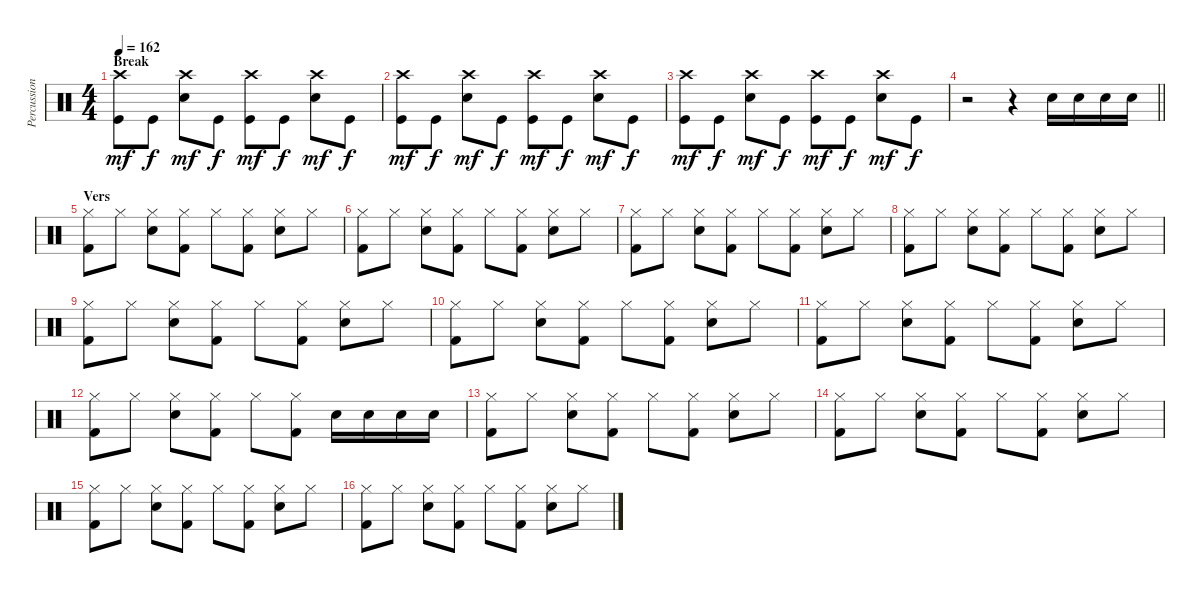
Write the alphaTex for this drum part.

\track ("Percussions" "Percussion") {instrument percussion}
\staff {score}
\articulation defaults
\ts (4 4)
\section ("" "Break")
\tempo 162
\clef neutral
\ks c
("Crash high (hit)" "Kick (hit)").8{dy mf} "Kick (hit)".8{dy f} ("Crash high (hit)" "Electric Snare (hit)").8{dy mf} "Kick (hit)".8{dy f} ("Crash high (hit)" "Kick (hit)").8{dy mf} "Kick (hit)".8{dy f} ("Crash high (hit)" "Electric Snare (hit)").8{dy mf} "Kick (hit)".8{dy f} |
("Crash high (hit)" "Kick (hit)").8{dy mf} "Kick (hit)".8{dy f} ("Crash high (hit)" "Electric Snare (hit)").8{dy mf} "Kick (hit)".8{dy f} ("Crash high (hit)" "Kick (hit)").8{dy mf} "Kick (hit)".8{dy f} ("Crash high (hit)" "Electric Snare (hit)").8{dy mf} "Kick (hit)".8{dy f} |
("Crash high (hit)" "Kick (hit)").8{dy mf} "Kick (hit)".8{dy f} ("Crash high (hit)" "Electric Snare (hit)").8{dy mf} "Kick (hit)".8{dy f} ("Crash high (hit)" "Kick (hit)").8{dy mf} "Kick (hit)".8{dy f} ("Crash high (hit)" "Electric Snare (hit)").8{dy mf} "Kick (hit)".8{dy f} |
\barLineRight lightlight
r.2 r.4 "Snare (hit) 2".16 "Snare (hit) 2".16 "Snare (hit) 2".16 "Snare (hit) 2".16 |
\section ("" "Vers")
("Hi-Hat (closed)" "Kick (hit) 2").8 "Hi-Hat (closed)".8 ("Snare (hit) 2" "Hi-Hat (closed)").8 ("Hi-Hat (closed)" "Kick (hit) 2").8 "Hi-Hat (closed)".8 ("Hi-Hat (closed)" "Kick (hit) 2").8 ("Snare (hit) 2" "Hi-Hat (closed)").8 "Hi-Hat (closed)".8 |
("Hi-Hat (closed)" "Kick (hit) 2").8 "Hi-Hat (closed)".8 ("Snare (hit) 2" "Hi-Hat (closed)").8 ("Hi-Hat (closed)" "Kick (hit) 2").8 "Hi-Hat (closed)".8 ("Hi-Hat (closed)" "Kick (hit) 2").8 ("Snare (hit) 2" "Hi-Hat (closed)").8 "Hi-Hat (closed)".8 |
("Hi-Hat (closed)" "Kick (hit) 2").8 "Hi-Hat (closed)".8 ("Snare (hit) 2" "Hi-Hat (closed)").8 ("Hi-Hat (closed)" "Kick (hit) 2").8 "Hi-Hat (closed)".8 ("Hi-Hat (closed)" "Kick (hit) 2").8 ("Snare (hit) 2" "Hi-Hat (closed)").8 "Hi-Hat (closed)".8 |
("Hi-Hat (closed)" "Kick (hit) 2").8 "Hi-Hat (closed)".8 ("Snare (hit) 2" "Hi-Hat (closed)").8 ("Hi-Hat (closed)" "Kick (hit) 2").8 "Hi-Hat (closed)".8 ("Hi-Hat (closed)" "Kick (hit) 2").8 ("Snare (hit) 2" "Hi-Hat (closed)").8 "Hi-Hat (closed)".8 |
("Hi-Hat (closed)" "Kick (hit) 2").8 "Hi-Hat (closed)".8 ("Snare (hit) 2" "Hi-Hat (closed)").8 ("Hi-Hat (closed)" "Kick (hit) 2").8 "Hi-Hat (closed)".8 ("Hi-Hat (closed)" "Kick (hit) 2").8 ("Snare (hit) 2" "Hi-Hat (closed)").8 "Hi-Hat (closed)".8 |
("Hi-Hat (closed)" "Kick (hit) 2").8 "Hi-Hat (closed)".8 ("Snare (hit) 2" "Hi-Hat (closed)").8 ("Hi-Hat (closed)" "Kick (hit) 2").8 "Hi-Hat (closed)".8 ("Hi-Hat (closed)" "Kick (hit) 2").8 ("Snare (hit) 2" "Hi-Hat (closed)").8 "Hi-Hat (closed)".8 |
("Hi-Hat (closed)" "Kick (hit) 2").8 "Hi-Hat (closed)".8 ("Snare (hit) 2" "Hi-Hat (closed)").8 ("Hi-Hat (closed)" "Kick (hit) 2").8 "Hi-Hat (closed)".8 ("Hi-Hat (closed)" "Kick (hit) 2").8 ("Snare (hit) 2" "Hi-Hat (closed)").8 "Hi-Hat (closed)".8 |
("Hi-Hat (closed)" "Kick (hit) 2").8 "Hi-Hat (closed)".8 ("Snare (hit) 2" "Hi-Hat (closed)").8 ("Hi-Hat (closed)" "Kick (hit) 2").8 "Hi-Hat (closed)".8 ("Hi-Hat (closed)" "Kick (hit) 2").8 "Electric Snare (hit)".16 "Electric Snare (hit)".16 "Electric Snare (hit)".16 "Electric Snare (hit)".16 |
("Hi-Hat (closed)" "Kick (hit) 2").8 "Hi-Hat (closed)".8 ("Snare (hit) 2" "Hi-Hat (closed)").8 ("Hi-Hat (closed)" "Kick (hit) 2").8 "Hi-Hat (closed)".8 ("Hi-Hat (closed)" "Kick (hit) 2").8 ("Snare (hit) 2" "Hi-Hat (closed)").8 "Hi-Hat (closed)".8 |
("Hi-Hat (closed)" "Kick (hit) 2").8 "Hi-Hat (closed)".8 ("Snare (hit) 2" "Hi-Hat (closed)").8 ("Hi-Hat (closed)" "Kick (hit) 2").8 "Hi-Hat (closed)".8 ("Hi-Hat (closed)" "Kick (hit) 2").8 ("Snare (hit) 2" "Hi-Hat (closed)").8 "Hi-Hat (closed)".8 |
("Hi-Hat (closed)" "Kick (hit) 2").8 "Hi-Hat (closed)".8 ("Snare (hit) 2" "Hi-Hat (closed)").8 ("Hi-Hat (closed)" "Kick (hit) 2").8 "Hi-Hat (closed)".8 ("Hi-Hat (closed)" "Kick (hit) 2").8 ("Snare (hit) 2" "Hi-Hat (closed)").8 "Hi-Hat (closed)".8 |
("Hi-Hat (closed)" "Kick (hit) 2").8 "Hi-Hat (closed)".8 ("Snare (hit) 2" "Hi-Hat (closed)").8 ("Hi-Hat (closed)" "Kick (hit) 2").8 "Hi-Hat (closed)".8 ("Hi-Hat (closed)" "Kick (hit) 2").8 ("Snare (hit) 2" "Hi-Hat (closed)").8 "Hi-Hat (closed)".8
